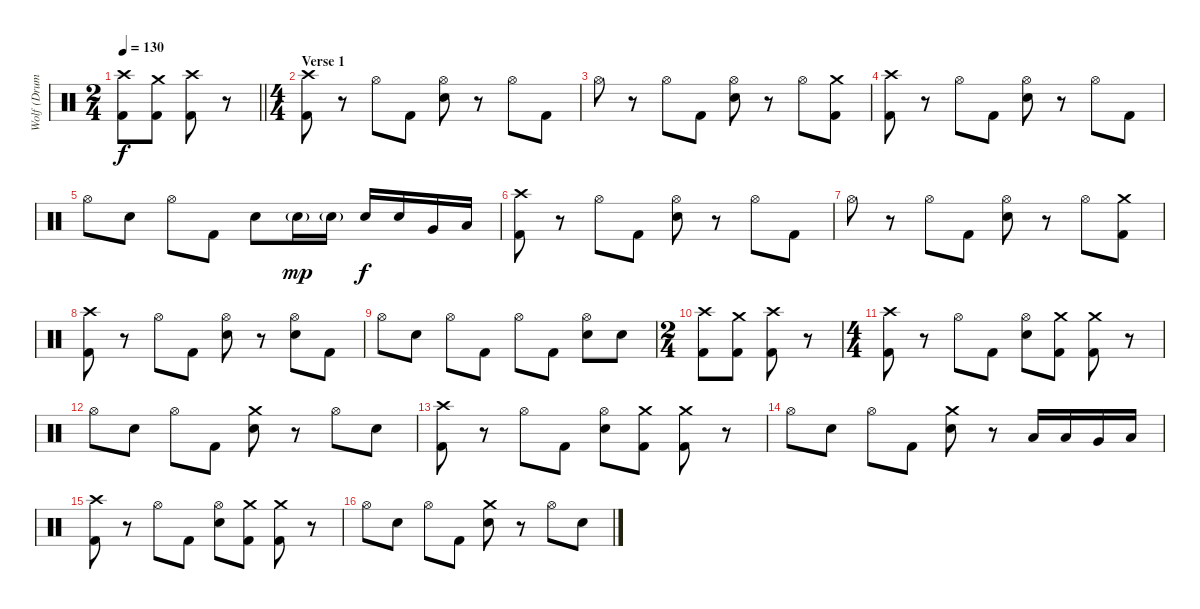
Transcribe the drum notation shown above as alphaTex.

\track ("Wolf (Drums)" "Wolf (Drum") {instrument percussion}
\staff {score}
\articulation defaults
\ts (2 4)
\tempo 130
\clef neutral
\barLineRight lightlight
\ks c
("Crash high (hit)" "Kick (hit) 2").8{dy f} ("Crash medium (hit)" "Kick (hit) 2").8 ("Crash high (hit)" "Kick (hit) 2").8 r.8 |
\ts (4 4)
\section ("" "Verse 1")
("Crash high (hit)" "Kick (hit) 2").8 r.8 "Hi-Hat (open)".8 "Kick (hit) 2".8 ("Hi-Hat (open)" "Snare (hit) 2").8 r.8 "Hi-Hat (open)".8 "Kick (hit) 2".8 |
"Hi-Hat (open)".8 r.8 "Hi-Hat (open)".8 "Kick (hit) 2".8 ("Hi-Hat (open)" "Snare (hit) 2").8 r.8 "Hi-Hat (open)".8 ("Crash medium (hit)" "Kick (hit) 2").8 |
("Crash high (hit)" "Kick (hit) 2").8 r.8 "Hi-Hat (open)".8 "Kick (hit) 2".8 ("Hi-Hat (open)" "Snare (hit) 2").8 r.8 "Hi-Hat (open)".8 "Kick (hit) 2".8 |
"Hi-Hat (open)".8 "Snare (hit) 2".8 "Hi-Hat (open)".8 "Kick (hit) 2".8 "Snare (hit) 2".8 "Snare (hit) 2"{g}.16{dy mp} "Snare (hit) 2"{g}.16 "Snare (hit) 2".16{dy f} "Snare (hit) 2".16 "Very Low Tom (hit)".16 "Low Floor Tom (hit)".16 |
("Crash high (hit)" "Kick (hit) 2").8 r.8 "Hi-Hat (open)".8 "Kick (hit) 2".8 ("Hi-Hat (open)" "Snare (hit) 2").8 r.8 "Hi-Hat (open)".8 "Kick (hit) 2".8 |
"Hi-Hat (open)".8 r.8 "Hi-Hat (open)".8 "Kick (hit) 2".8 ("Hi-Hat (open)" "Snare (hit) 2").8 r.8 "Hi-Hat (open)".8 ("Crash medium (hit)" "Kick (hit) 2").8 |
("Crash high (hit)" "Kick (hit) 2").8 r.8 "Hi-Hat (open)".8 "Kick (hit) 2".8 ("Hi-Hat (open)" "Snare (hit) 2").8 r.8 ("Hi-Hat (open)" "Snare (hit) 2").8 "Kick (hit) 2".8 |
"Hi-Hat (open)".8 "Snare (hit) 2".8 "Hi-Hat (open)".8 "Kick (hit) 2".8 "Hi-Hat (open)".8 "Kick (hit) 2".8 ("Hi-Hat (open)" "Snare (hit) 2").8 "Snare (hit) 2".8 |
\ts (2 4)
("Crash high (hit)" "Kick (hit) 2").8 ("Crash medium (hit)" "Kick (hit) 2").8 ("Crash high (hit)" "Kick (hit) 2").8 r.8 |
\ts (4 4)
("Crash high (hit)" "Kick (hit) 2").8 r.8 "Hi-Hat (open)".8 "Kick (hit) 2".8 ("Hi-Hat (open)" "Snare (hit) 2").8 ("Crash medium (hit)" "Kick (hit) 2").8 ("Crash medium (hit)" "Kick (hit) 2").8 r.8 |
"Hi-Hat (open)".8 "Snare (hit) 2".8 "Hi-Hat (open)".8 "Kick (hit) 2".8 ("Crash medium (hit)" "Snare (hit) 2").8 r.8 "Hi-Hat (open)".8 "Snare (hit) 2".8 |
("Crash high (hit)" "Kick (hit) 2").8 r.8 "Hi-Hat (open)".8 "Kick (hit) 2".8 ("Hi-Hat (open)" "Snare (hit) 2").8 ("Crash medium (hit)" "Kick (hit) 2").8 ("Crash medium (hit)" "Kick (hit) 2").8 r.8 |
"Hi-Hat (open)".8 "Snare (hit) 2".8 "Hi-Hat (open)".8 "Kick (hit) 2".8 ("Crash medium (hit)" "Snare (hit) 2").8 r.8 "Low Tom (hit)".16 "Low Tom (hit)".16 "Very Low Tom (hit)".16 "Low Floor Tom (hit)".16 |
("Crash high (hit)" "Kick (hit) 2").8 r.8 "Hi-Hat (open)".8 "Kick (hit) 2".8 ("Hi-Hat (open)" "Snare (hit) 2").8 ("Crash medium (hit)" "Kick (hit) 2").8 ("Crash medium (hit)" "Kick (hit) 2").8 r.8 |
"Hi-Hat (open)".8 "Snare (hit) 2".8 "Hi-Hat (open)".8 "Kick (hit) 2".8 ("Crash medium (hit)" "Snare (hit) 2").8 r.8 "Hi-Hat (open)".8 "Snare (hit) 2".8
